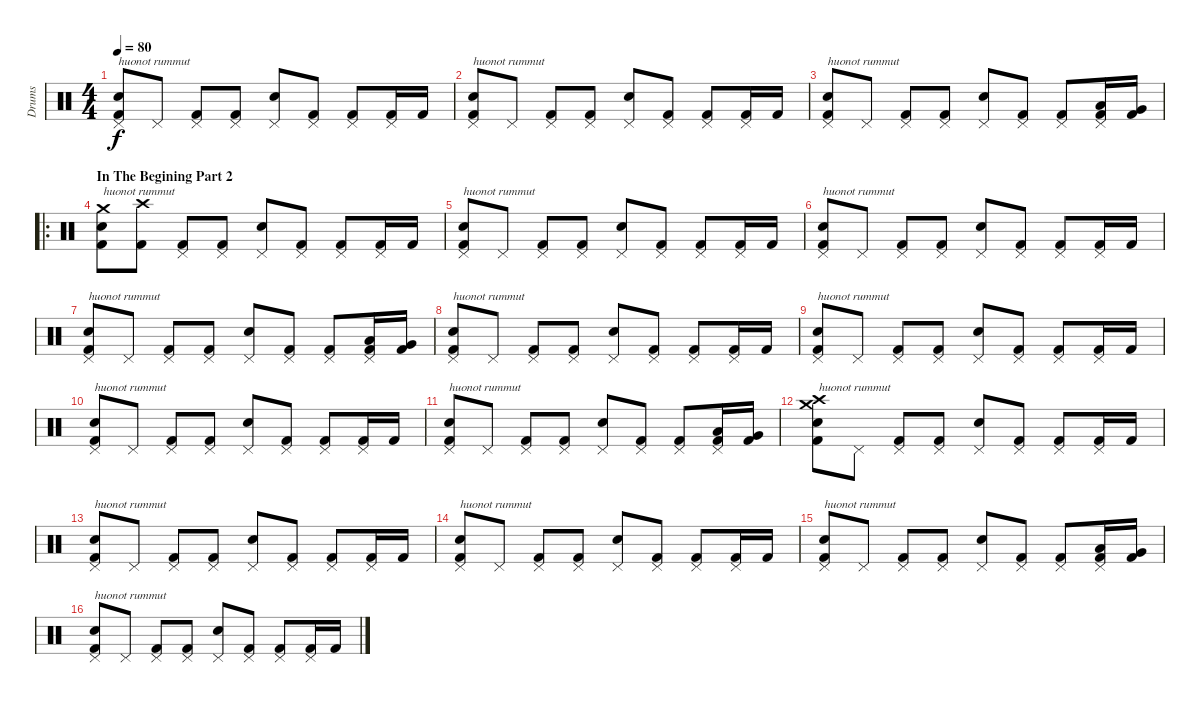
\track ("Drums" "Drums") {instrument percussion}
\staff {score}
\articulation defaults
\ts (4 4)
\tempo 80
\clef neutral
\ks c
("Pedal Hi-Hat (hit)" "Snare (hit) 2" "Kick (hit) 2").8{txt "huonot rummut" dy f} "Pedal Hi-Hat (hit)".8 ("Pedal Hi-Hat (hit)" "Kick (hit) 2").8 ("Pedal Hi-Hat (hit)" "Kick (hit) 2").8 ("Pedal Hi-Hat (hit)" "Snare (hit) 2").8 ("Pedal Hi-Hat (hit)" "Kick (hit) 2").8 ("Pedal Hi-Hat (hit)" "Kick (hit) 2").8 ("Pedal Hi-Hat (hit)" "Kick (hit) 2").16 "Kick (hit) 2".16 |
("Pedal Hi-Hat (hit)" "Snare (hit) 2" "Kick (hit) 2").8{txt "huonot rummut"} "Pedal Hi-Hat (hit)".8 ("Pedal Hi-Hat (hit)" "Kick (hit) 2").8 ("Pedal Hi-Hat (hit)" "Kick (hit) 2").8 ("Pedal Hi-Hat (hit)" "Snare (hit) 2").8 ("Pedal Hi-Hat (hit)" "Kick (hit) 2").8 ("Pedal Hi-Hat (hit)" "Kick (hit) 2").8 ("Pedal Hi-Hat (hit)" "Kick (hit) 2").16 "Kick (hit) 2".16 |
("Pedal Hi-Hat (hit)" "Snare (hit) 2" "Kick (hit) 2").8{txt "huonot rummut"} "Pedal Hi-Hat (hit)".8 ("Pedal Hi-Hat (hit)" "Kick (hit) 2").8 ("Pedal Hi-Hat (hit)" "Kick (hit) 2").8 ("Pedal Hi-Hat (hit)" "Snare (hit) 2").8 ("Pedal Hi-Hat (hit)" "Kick (hit) 2").8 ("Pedal Hi-Hat (hit)" "Kick (hit) 2").8 ("Pedal Hi-Hat (hit)" "Low Tom (hit)" "Kick (hit) 2").16 ("Very Low Tom (hit)" "Kick (hit) 2").16 |
\ro
\section ("" "In The Begining Part 2")
("Crash medium (hit)" "Snare (hit) 2" "Kick (hit) 2").8{txt "huonot rummut"} ("Crash high (hit)" "Kick (hit) 2").8 ("Pedal Hi-Hat (hit)" "Kick (hit) 2").8 ("Pedal Hi-Hat (hit)" "Kick (hit) 2").8 ("Pedal Hi-Hat (hit)" "Snare (hit) 2").8 ("Pedal Hi-Hat (hit)" "Kick (hit) 2").8 ("Pedal Hi-Hat (hit)" "Kick (hit) 2").8 ("Pedal Hi-Hat (hit)" "Kick (hit) 2").16 "Kick (hit) 2".16 |
("Pedal Hi-Hat (hit)" "Snare (hit) 2" "Kick (hit) 2").8{txt "huonot rummut"} "Pedal Hi-Hat (hit)".8 ("Pedal Hi-Hat (hit)" "Kick (hit) 2").8 ("Pedal Hi-Hat (hit)" "Kick (hit) 2").8 ("Pedal Hi-Hat (hit)" "Snare (hit) 2").8 ("Pedal Hi-Hat (hit)" "Kick (hit) 2").8 ("Pedal Hi-Hat (hit)" "Kick (hit) 2").8 ("Pedal Hi-Hat (hit)" "Kick (hit) 2").16 "Kick (hit) 2".16 |
("Pedal Hi-Hat (hit)" "Snare (hit) 2" "Kick (hit) 2").8{txt "huonot rummut"} "Pedal Hi-Hat (hit)".8 ("Pedal Hi-Hat (hit)" "Kick (hit) 2").8 ("Pedal Hi-Hat (hit)" "Kick (hit) 2").8 ("Pedal Hi-Hat (hit)" "Snare (hit) 2").8 ("Pedal Hi-Hat (hit)" "Kick (hit) 2").8 ("Pedal Hi-Hat (hit)" "Kick (hit) 2").8 ("Pedal Hi-Hat (hit)" "Kick (hit) 2").16 "Kick (hit) 2".16 |
("Pedal Hi-Hat (hit)" "Snare (hit) 2" "Kick (hit) 2").8{txt "huonot rummut"} "Pedal Hi-Hat (hit)".8 ("Pedal Hi-Hat (hit)" "Kick (hit) 2").8 ("Pedal Hi-Hat (hit)" "Kick (hit) 2").8 ("Pedal Hi-Hat (hit)" "Snare (hit) 2").8 ("Pedal Hi-Hat (hit)" "Kick (hit) 2").8 ("Pedal Hi-Hat (hit)" "Kick (hit) 2").8 ("Pedal Hi-Hat (hit)" "Low Tom (hit)" "Kick (hit) 2").16 ("Very Low Tom (hit)" "Kick (hit) 2").16 |
("Pedal Hi-Hat (hit)" "Snare (hit) 2" "Kick (hit) 2").8{txt "huonot rummut"} "Pedal Hi-Hat (hit)".8 ("Pedal Hi-Hat (hit)" "Kick (hit) 2").8 ("Pedal Hi-Hat (hit)" "Kick (hit) 2").8 ("Pedal Hi-Hat (hit)" "Snare (hit) 2").8 ("Pedal Hi-Hat (hit)" "Kick (hit) 2").8 ("Pedal Hi-Hat (hit)" "Kick (hit) 2").8 ("Pedal Hi-Hat (hit)" "Kick (hit) 2").16 "Kick (hit) 2".16 |
("Pedal Hi-Hat (hit)" "Snare (hit) 2" "Kick (hit) 2").8{txt "huonot rummut"} "Pedal Hi-Hat (hit)".8 ("Pedal Hi-Hat (hit)" "Kick (hit) 2").8 ("Pedal Hi-Hat (hit)" "Kick (hit) 2").8 ("Pedal Hi-Hat (hit)" "Snare (hit) 2").8 ("Pedal Hi-Hat (hit)" "Kick (hit) 2").8 ("Pedal Hi-Hat (hit)" "Kick (hit) 2").8 ("Pedal Hi-Hat (hit)" "Kick (hit) 2").16 "Kick (hit) 2".16 |
("Pedal Hi-Hat (hit)" "Snare (hit) 2" "Kick (hit) 2").8{txt "huonot rummut"} "Pedal Hi-Hat (hit)".8 ("Pedal Hi-Hat (hit)" "Kick (hit) 2").8 ("Pedal Hi-Hat (hit)" "Kick (hit) 2").8 ("Pedal Hi-Hat (hit)" "Snare (hit) 2").8 ("Pedal Hi-Hat (hit)" "Kick (hit) 2").8 ("Pedal Hi-Hat (hit)" "Kick (hit) 2").8 ("Pedal Hi-Hat (hit)" "Kick (hit) 2").16 "Kick (hit) 2".16 |
("Pedal Hi-Hat (hit)" "Snare (hit) 2" "Kick (hit) 2").8{txt "huonot rummut"} "Pedal Hi-Hat (hit)".8 ("Pedal Hi-Hat (hit)" "Kick (hit) 2").8 ("Pedal Hi-Hat (hit)" "Kick (hit) 2").8 ("Pedal Hi-Hat (hit)" "Snare (hit) 2").8 ("Pedal Hi-Hat (hit)" "Kick (hit) 2").8 ("Pedal Hi-Hat (hit)" "Kick (hit) 2").8 ("Pedal Hi-Hat (hit)" "Low Tom (hit)" "Kick (hit) 2").16 ("Very Low Tom (hit)" "Kick (hit) 2").16 |
("Crash medium (hit)" "Crash high (hit)" "Snare (hit) 2" "Kick (hit) 2").8{txt "huonot rummut"} "Pedal Hi-Hat (hit)".8 ("Pedal Hi-Hat (hit)" "Kick (hit) 2").8 ("Pedal Hi-Hat (hit)" "Kick (hit) 2").8 ("Pedal Hi-Hat (hit)" "Snare (hit) 2").8 ("Pedal Hi-Hat (hit)" "Kick (hit) 2").8 ("Pedal Hi-Hat (hit)" "Kick (hit) 2").8 ("Pedal Hi-Hat (hit)" "Kick (hit) 2").16 "Kick (hit) 2".16 |
("Pedal Hi-Hat (hit)" "Snare (hit) 2" "Kick (hit) 2").8{txt "huonot rummut"} "Pedal Hi-Hat (hit)".8 ("Pedal Hi-Hat (hit)" "Kick (hit) 2").8 ("Pedal Hi-Hat (hit)" "Kick (hit) 2").8 ("Pedal Hi-Hat (hit)" "Snare (hit) 2").8 ("Pedal Hi-Hat (hit)" "Kick (hit) 2").8 ("Pedal Hi-Hat (hit)" "Kick (hit) 2").8 ("Pedal Hi-Hat (hit)" "Kick (hit) 2").16 "Kick (hit) 2".16 |
("Pedal Hi-Hat (hit)" "Snare (hit) 2" "Kick (hit) 2").8{txt "huonot rummut"} "Pedal Hi-Hat (hit)".8 ("Pedal Hi-Hat (hit)" "Kick (hit) 2").8 ("Pedal Hi-Hat (hit)" "Kick (hit) 2").8 ("Pedal Hi-Hat (hit)" "Snare (hit) 2").8 ("Pedal Hi-Hat (hit)" "Kick (hit) 2").8 ("Pedal Hi-Hat (hit)" "Kick (hit) 2").8 ("Pedal Hi-Hat (hit)" "Kick (hit) 2").16 "Kick (hit) 2".16 |
("Pedal Hi-Hat (hit)" "Snare (hit) 2" "Kick (hit) 2").8{txt "huonot rummut"} "Pedal Hi-Hat (hit)".8 ("Pedal Hi-Hat (hit)" "Kick (hit) 2").8 ("Pedal Hi-Hat (hit)" "Kick (hit) 2").8 ("Pedal Hi-Hat (hit)" "Snare (hit) 2").8 ("Pedal Hi-Hat (hit)" "Kick (hit) 2").8 ("Pedal Hi-Hat (hit)" "Kick (hit) 2").8 ("Pedal Hi-Hat (hit)" "Low Tom (hit)" "Kick (hit) 2").16 ("Very Low Tom (hit)" "Kick (hit) 2").16 |
("Pedal Hi-Hat (hit)" "Snare (hit) 2" "Kick (hit) 2").8{txt "huonot rummut"} "Pedal Hi-Hat (hit)".8 ("Pedal Hi-Hat (hit)" "Kick (hit) 2").8 ("Pedal Hi-Hat (hit)" "Kick (hit) 2").8 ("Pedal Hi-Hat (hit)" "Snare (hit) 2").8 ("Pedal Hi-Hat (hit)" "Kick (hit) 2").8 ("Pedal Hi-Hat (hit)" "Kick (hit) 2").8 ("Pedal Hi-Hat (hit)" "Kick (hit) 2").16 "Kick (hit) 2".16
